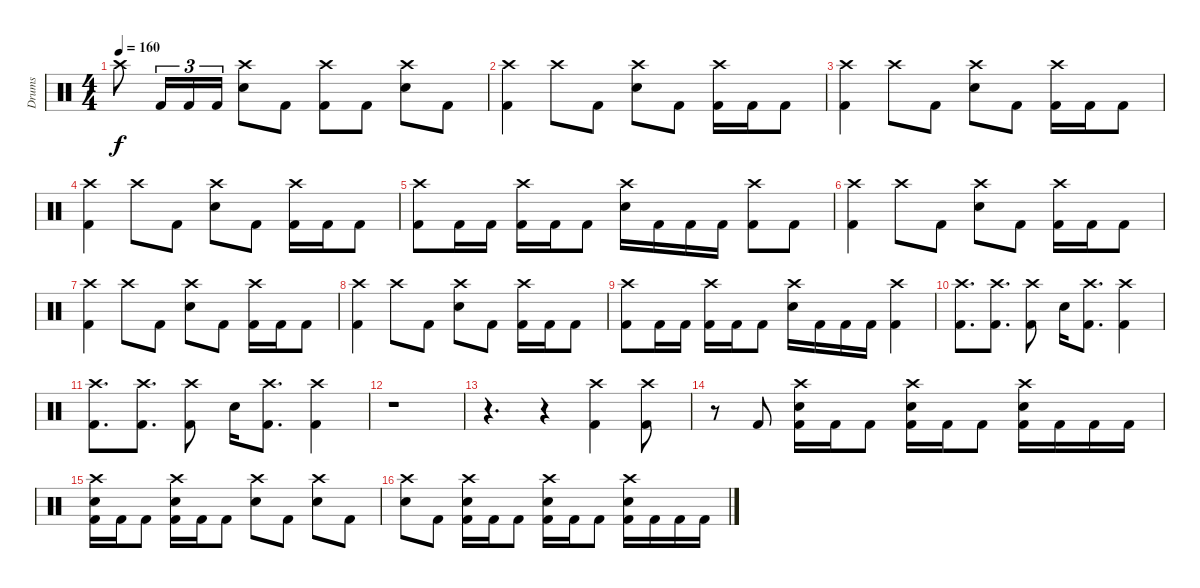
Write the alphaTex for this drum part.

\track ("Drums" "Drums") {instrument percussion}
\staff {score}
\articulation defaults
\ts (4 4)
\tempo 160
\clef neutral
\ks c "Crash high (hit)".8{dy f} "Kick (hit) 2".16{tu (3 2)} "Kick (hit) 2".16{tu (3 2)} "Kick (hit) 2".16{tu (3 2)}
("Crash high (hit)" "Electric Snare (hit)").8 "Kick (hit) 2".8 ("Crash high (hit)" "Kick (hit) 2").8 "Kick (hit) 2".8 ("Crash high (hit)" "Electric Snare (hit)").8 "Kick (hit) 2".8 |
("Crash high (hit)" "Kick (hit) 2").4 "Crash high (hit)".8 "Kick (hit) 2".8 ("Crash high (hit)" "Electric Snare (hit)").8 "Kick (hit) 2".8 ("Crash high (hit)" "Kick (hit) 2").16 "Kick (hit) 2".16 "Kick (hit) 2".8 |
("Crash high (hit)" "Kick (hit) 2").4 "Crash high (hit)".8 "Kick (hit) 2".8 ("Crash high (hit)" "Electric Snare (hit)").8 "Kick (hit) 2".8 ("Crash high (hit)" "Kick (hit) 2").16 "Kick (hit) 2".16 "Kick (hit) 2".8 |
("Crash high (hit)" "Kick (hit) 2").4 "Crash high (hit)".8 "Kick (hit) 2".8 ("Crash high (hit)" "Electric Snare (hit)").8 "Kick (hit) 2".8 ("Crash high (hit)" "Kick (hit) 2").16 "Kick (hit) 2".16 "Kick (hit) 2".8 |
("Crash high (hit)" "Kick (hit) 2").8 "Kick (hit) 2".16 "Kick (hit) 2".16 ("Crash high (hit)" "Kick (hit) 2").16 "Kick (hit) 2".16 "Kick (hit) 2".8 ("Crash high (hit)" "Electric Snare (hit)").16 "Kick (hit) 2".16 "Kick (hit) 2".16 "Kick (hit) 2".16 ("Crash high (hit)" "Kick (hit) 2").8 "Kick (hit) 2".8 |
("Crash high (hit)" "Kick (hit) 2").4 "Crash high (hit)".8 "Kick (hit) 2".8 ("Crash high (hit)" "Electric Snare (hit)").8 "Kick (hit) 2".8 ("Crash high (hit)" "Kick (hit) 2").16 "Kick (hit) 2".16 "Kick (hit) 2".8 |
("Crash high (hit)" "Kick (hit) 2").4 "Crash high (hit)".8 "Kick (hit) 2".8 ("Crash high (hit)" "Electric Snare (hit)").8 "Kick (hit) 2".8 ("Crash high (hit)" "Kick (hit) 2").16 "Kick (hit) 2".16 "Kick (hit) 2".8 |
("Crash high (hit)" "Kick (hit) 2").4 "Crash high (hit)".8 "Kick (hit) 2".8 ("Crash high (hit)" "Electric Snare (hit)").8 "Kick (hit) 2".8 ("Crash high (hit)" "Kick (hit) 2").16 "Kick (hit) 2".16 "Kick (hit) 2".8 |
("Crash high (hit)" "Kick (hit) 2").8 "Kick (hit) 2".16 "Kick (hit) 2".16 ("Crash high (hit)" "Kick (hit) 2").16 "Kick (hit) 2".16 "Kick (hit) 2".8 ("Crash high (hit)" "Electric Snare (hit)").16 "Kick (hit) 2".16 "Kick (hit) 2".16 "Kick (hit) 2".16 ("Crash high (hit)" "Kick (hit) 2").4 |
("Crash high (hit)" "Kick (hit) 2").8{d} ("Crash high (hit)" "Kick (hit) 2").8{d} ("Crash high (hit)" "Kick (hit) 2").8 "Electric Snare (hit)".16 ("Crash high (hit)" "Kick (hit) 2").8{d} ("Crash high (hit)" "Kick (hit) 2").4 |
("Crash high (hit)" "Kick (hit) 2").8{d} ("Crash high (hit)" "Kick (hit) 2").8{d} ("Crash high (hit)" "Kick (hit) 2").8 "Electric Snare (hit)".16 ("Crash high (hit)" "Kick (hit) 2").8{d} ("Crash high (hit)" "Kick (hit) 2").4 |
r.1 |
r.4{d} r.4 ("Crash high (hit)" "Kick (hit) 2").4 ("Crash high (hit)" "Kick (hit) 2").8 |
r.8 "Kick (hit) 2".8 ("Crash high (hit)" "Electric Snare (hit)" "Kick (hit) 2").16 "Kick (hit) 2".16 "Kick (hit) 2".8 ("Crash high (hit)" "Electric Snare (hit)" "Kick (hit) 2").16 "Kick (hit) 2".16 "Kick (hit) 2".8 ("Crash high (hit)" "Electric Snare (hit)" "Kick (hit) 2").16 "Kick (hit) 2".16 "Kick (hit) 2".16 "Kick (hit) 2".16 |
("Crash high (hit)" "Electric Snare (hit)" "Kick (hit) 2").16 "Kick (hit) 2".16 "Kick (hit) 2".8 ("Crash high (hit)" "Electric Snare (hit)" "Kick (hit) 2").16 "Kick (hit) 2".16 "Kick (hit) 2".8 ("Crash high (hit)" "Electric Snare (hit)").8 "Kick (hit) 2".8 ("Crash high (hit)" "Electric Snare (hit)").8 "Kick (hit) 2".8 |
("Crash high (hit)" "Electric Snare (hit)").8 "Kick (hit) 2".8 ("Crash high (hit)" "Electric Snare (hit)" "Kick (hit) 2").16 "Kick (hit) 2".16 "Kick (hit) 2".8 ("Crash high (hit)" "Electric Snare (hit)" "Kick (hit) 2").16 "Kick (hit) 2".16 "Kick (hit) 2".8 ("Crash high (hit)" "Electric Snare (hit)" "Kick (hit) 2").16 "Kick (hit) 2".16 "Kick (hit) 2".16 "Kick (hit) 2".16
